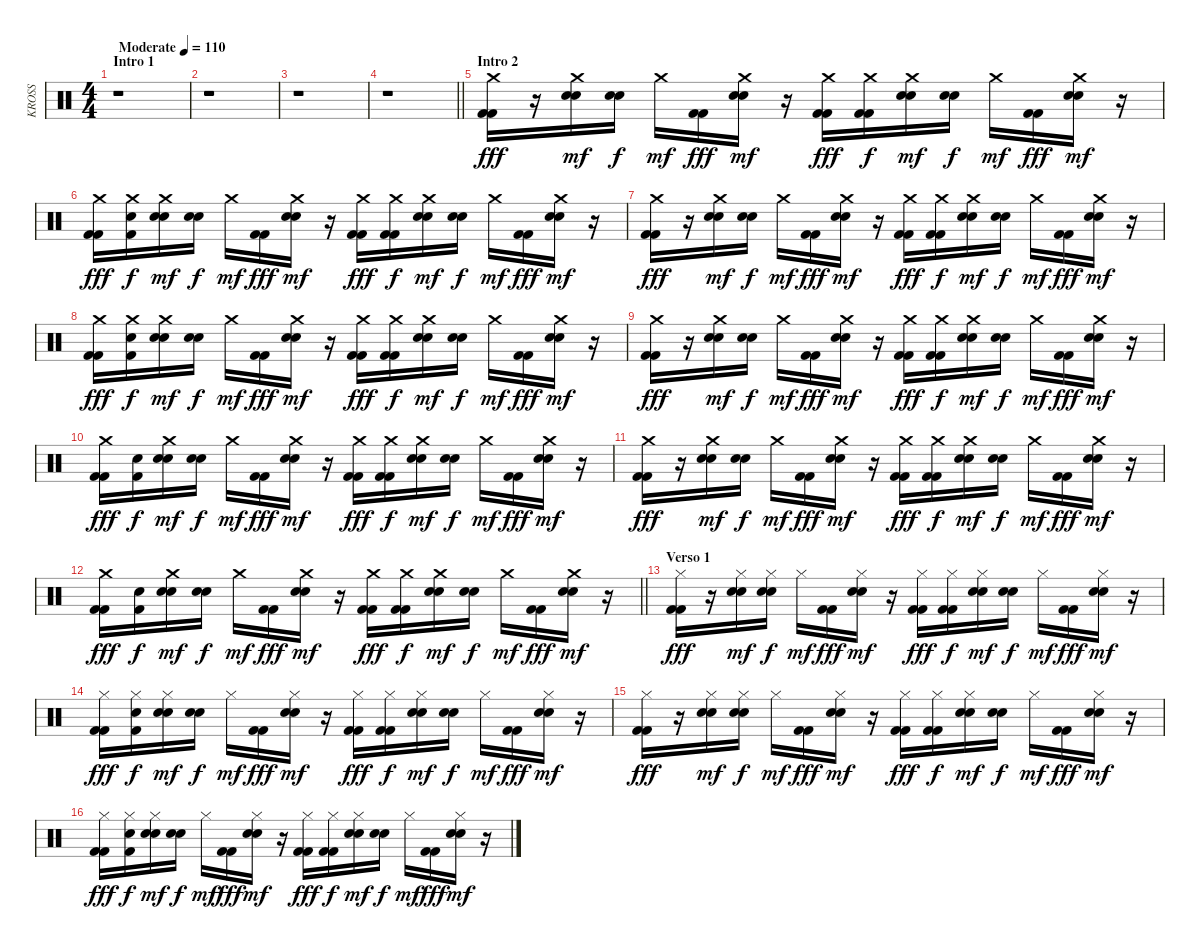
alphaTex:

\track ("KROSS" "KROSS") {instrument percussion}
\staff {score}
\articulation defaults
\ts (4 4)
\section ("" "Intro 1")
\tempo (110 "Moderate")
\clef neutral
\ks c
r.1{dy fff} |
r.1 |
r.1 |
\barLineRight lightlight
r.1 |
\section ("" "Intro 2")
("Crash medium (hit)" "Kick (hit) 2" "Kick (hit) 2").16 r.16 ("Crash medium (hit)" "Snare (hit) 2" "Snare (hit) 2").16{dy mf} ("Snare (hit) 2" "Snare (hit) 2").16{dy f} "Crash medium (hit)".16{dy mf} ("Kick (hit) 2" "Kick (hit) 2").16{dy fff} ("Crash medium (hit)" "Snare (hit) 2" "Snare (hit) 2").16{dy mf} r.16 ("Crash medium (hit)" "Kick (hit) 2" "Kick (hit) 2").16{dy fff} ("Crash medium (hit)" "Kick (hit) 2" "Kick (hit) 2").16{dy f} ("Crash medium (hit)" "Snare (hit) 2" "Snare (hit) 2").16{dy mf} ("Snare (hit) 2" "Snare (hit) 2").16{dy f} "Crash medium (hit)".16{dy mf} ("Kick (hit) 2" "Kick (hit) 2").16{dy fff} ("Crash medium (hit)" "Snare (hit) 2" "Snare (hit) 2").16{dy mf} r.16 |
("Crash medium (hit)" "Kick (hit) 2" "Kick (hit) 2").16{dy fff} ("Crash medium (hit)" "Kick (hit) 2" "Electric Snare (hit)").16{dy f} ("Crash medium (hit)" "Snare (hit) 2" "Snare (hit) 2").16{dy mf} ("Snare (hit) 2" "Snare (hit) 2").16{dy f} "Crash medium (hit)".16{dy mf} ("Kick (hit) 2" "Kick (hit) 2").16{dy fff} ("Crash medium (hit)" "Snare (hit) 2" "Snare (hit) 2").16{dy mf} r.16 ("Crash medium (hit)" "Kick (hit) 2" "Kick (hit) 2").16{dy fff} ("Crash medium (hit)" "Kick (hit) 2" "Kick (hit) 2").16{dy f} ("Crash medium (hit)" "Snare (hit) 2" "Snare (hit) 2").16{dy mf} ("Snare (hit) 2" "Snare (hit) 2").16{dy f} "Crash medium (hit)".16{dy mf} ("Kick (hit) 2" "Kick (hit) 2").16{dy fff} ("Crash medium (hit)" "Snare (hit) 2" "Snare (hit) 2").16{dy mf} r.16 |
("Crash medium (hit)" "Kick (hit) 2" "Kick (hit) 2").16{dy fff} r.16 ("Crash medium (hit)" "Snare (hit) 2" "Snare (hit) 2").16{dy mf} ("Snare (hit) 2" "Snare (hit) 2").16{dy f} "Crash medium (hit)".16{dy mf} ("Kick (hit) 2" "Kick (hit) 2").16{dy fff} ("Crash medium (hit)" "Snare (hit) 2" "Snare (hit) 2").16{dy mf} r.16 ("Crash medium (hit)" "Kick (hit) 2" "Kick (hit) 2").16{dy fff} ("Crash medium (hit)" "Kick (hit) 2" "Kick (hit) 2").16{dy f} ("Crash medium (hit)" "Snare (hit) 2" "Snare (hit) 2").16{dy mf} ("Snare (hit) 2" "Snare (hit) 2").16{dy f} "Crash medium (hit)".16{dy mf} ("Kick (hit) 2" "Kick (hit) 2").16{dy fff} ("Crash medium (hit)" "Snare (hit) 2" "Snare (hit) 2").16{dy mf} r.16 |
("Crash medium (hit)" "Kick (hit) 2" "Kick (hit) 2").16{dy fff} ("Crash medium (hit)" "Kick (hit) 2" "Electric Snare (hit)").16{dy f} ("Crash medium (hit)" "Snare (hit) 2" "Snare (hit) 2").16{dy mf} ("Snare (hit) 2" "Snare (hit) 2").16{dy f} "Crash medium (hit)".16{dy mf} ("Kick (hit) 2" "Kick (hit) 2").16{dy fff} ("Crash medium (hit)" "Snare (hit) 2" "Snare (hit) 2").16{dy mf} r.16 ("Crash medium (hit)" "Kick (hit) 2" "Kick (hit) 2").16{dy fff} ("Crash medium (hit)" "Kick (hit) 2" "Kick (hit) 2").16{dy f} ("Crash medium (hit)" "Snare (hit) 2" "Snare (hit) 2").16{dy mf} ("Snare (hit) 2" "Snare (hit) 2").16{dy f} "Crash medium (hit)".16{dy mf} ("Kick (hit) 2" "Kick (hit) 2").16{dy fff} ("Crash medium (hit)" "Snare (hit) 2" "Snare (hit) 2").16{dy mf} r.16 |
("Crash medium (hit)" "Kick (hit) 2" "Kick (hit) 2").16{dy fff} r.16 ("Crash medium (hit)" "Snare (hit) 2" "Snare (hit) 2").16{dy mf} ("Snare (hit) 2" "Snare (hit) 2").16{dy f} "Crash medium (hit)".16{dy mf} ("Kick (hit) 2" "Kick (hit) 2").16{dy fff} ("Crash medium (hit)" "Snare (hit) 2" "Snare (hit) 2").16{dy mf} r.16 ("Crash medium (hit)" "Kick (hit) 2" "Kick (hit) 2").16{dy fff} ("Crash medium (hit)" "Kick (hit) 2" "Kick (hit) 2").16{dy f} ("Crash medium (hit)" "Snare (hit) 2" "Snare (hit) 2").16{dy mf} ("Snare (hit) 2" "Snare (hit) 2").16{dy f} "Crash medium (hit)".16{dy mf} ("Kick (hit) 2" "Kick (hit) 2").16{dy fff} ("Crash medium (hit)" "Snare (hit) 2" "Snare (hit) 2").16{dy mf} r.16 |
("Crash medium (hit)" "Kick (hit) 2" "Kick (hit) 2").16{dy fff} ("Kick (hit) 2" "Electric Snare (hit)").16{dy f} ("Crash medium (hit)" "Snare (hit) 2" "Snare (hit) 2").16{dy mf} ("Snare (hit) 2" "Snare (hit) 2").16{dy f} "Crash medium (hit)".16{dy mf} ("Kick (hit) 2" "Kick (hit) 2").16{dy fff} ("Crash medium (hit)" "Snare (hit) 2" "Snare (hit) 2").16{dy mf} r.16 ("Crash medium (hit)" "Kick (hit) 2" "Kick (hit) 2").16{dy fff} ("Crash medium (hit)" "Kick (hit) 2" "Kick (hit) 2").16{dy f} ("Crash medium (hit)" "Snare (hit) 2" "Snare (hit) 2").16{dy mf} ("Snare (hit) 2" "Snare (hit) 2").16{dy f} "Crash medium (hit)".16{dy mf} ("Kick (hit) 2" "Kick (hit) 2").16{dy fff} ("Crash medium (hit)" "Snare (hit) 2" "Snare (hit) 2").16{dy mf} r.16 |
("Crash medium (hit)" "Kick (hit) 2" "Kick (hit) 2").16{dy fff} r.16 ("Crash medium (hit)" "Snare (hit) 2" "Snare (hit) 2").16{dy mf} ("Snare (hit) 2" "Snare (hit) 2").16{dy f} "Crash medium (hit)".16{dy mf} ("Kick (hit) 2" "Kick (hit) 2").16{dy fff} ("Crash medium (hit)" "Snare (hit) 2" "Snare (hit) 2").16{dy mf} r.16 ("Crash medium (hit)" "Kick (hit) 2" "Kick (hit) 2").16{dy fff} ("Crash medium (hit)" "Kick (hit) 2" "Kick (hit) 2").16{dy f} ("Crash medium (hit)" "Snare (hit) 2" "Snare (hit) 2").16{dy mf} ("Snare (hit) 2" "Snare (hit) 2").16{dy f} "Crash medium (hit)".16{dy mf} ("Kick (hit) 2" "Kick (hit) 2").16{dy fff} ("Crash medium (hit)" "Snare (hit) 2" "Snare (hit) 2").16{dy mf} r.16 |
\barLineRight lightlight
("Crash medium (hit)" "Kick (hit) 2" "Kick (hit) 2").16{dy fff} ("Kick (hit) 2" "Electric Snare (hit)").16{dy f} ("Crash medium (hit)" "Snare (hit) 2" "Snare (hit) 2").16{dy mf} ("Snare (hit) 2" "Snare (hit) 2").16{dy f} "Crash medium (hit)".16{dy mf} ("Kick (hit) 2" "Kick (hit) 2").16{dy fff} ("Crash medium (hit)" "Snare (hit) 2" "Snare (hit) 2").16{dy mf} r.16 ("Crash medium (hit)" "Kick (hit) 2" "Kick (hit) 2").16{dy fff} ("Crash medium (hit)" "Kick (hit) 2" "Kick (hit) 2").16{dy f} ("Crash medium (hit)" "Snare (hit) 2" "Snare (hit) 2").16{dy mf} ("Snare (hit) 2" "Snare (hit) 2").16{dy f} "Crash medium (hit)".16{dy mf} ("Kick (hit) 2" "Kick (hit) 2").16{dy fff} ("Crash medium (hit)" "Snare (hit) 2" "Snare (hit) 2").16{dy mf} r.16 |
\section ("" "Verso 1")
("Hi-Hat (closed)" "Kick (hit) 2" "Kick (hit) 2").16{dy fff} r.16 ("Hi-Hat (closed)" "Snare (hit) 2" "Snare (hit) 2").16{dy mf} ("Hi-Hat (closed)" "Snare (hit) 2" "Snare (hit) 2").16{dy f} "Hi-Hat (closed)".16{dy mf} ("Kick (hit) 2" "Kick (hit) 2").16{dy fff} ("Hi-Hat (closed)" "Snare (hit) 2" "Snare (hit) 2").16{dy mf} r.16 ("Hi-Hat (closed)" "Kick (hit) 2" "Kick (hit) 2").16{dy fff} ("Hi-Hat (closed)" "Kick (hit) 2" "Kick (hit) 2").16{dy f} ("Hi-Hat (closed)" "Snare (hit) 2" "Snare (hit) 2").16{dy mf} ("Snare (hit) 2" "Snare (hit) 2").16{dy f} "Hi-Hat (closed)".16{dy mf} ("Kick (hit) 2" "Kick (hit) 2").16{dy fff} ("Hi-Hat (closed)" "Snare (hit) 2" "Snare (hit) 2").16{dy mf} r.16 |
("Hi-Hat (closed)" "Kick (hit) 2" "Kick (hit) 2").16{dy fff} ("Hi-Hat (closed)" "Kick (hit) 2" "Electric Snare (hit)").16{dy f} ("Hi-Hat (closed)" "Snare (hit) 2" "Snare (hit) 2").16{dy mf} ("Snare (hit) 2" "Snare (hit) 2").16{dy f} "Hi-Hat (closed)".16{dy mf} ("Kick (hit) 2" "Kick (hit) 2").16{dy fff} ("Hi-Hat (closed)" "Snare (hit) 2" "Snare (hit) 2").16{dy mf} r.16 ("Hi-Hat (closed)" "Kick (hit) 2" "Kick (hit) 2").16{dy fff} ("Hi-Hat (closed)" "Kick (hit) 2" "Kick (hit) 2").16{dy f} ("Hi-Hat (closed)" "Snare (hit) 2" "Snare (hit) 2").16{dy mf} ("Snare (hit) 2" "Snare (hit) 2").16{dy f} "Hi-Hat (closed)".16{dy mf} ("Kick (hit) 2" "Kick (hit) 2").16{dy fff} ("Hi-Hat (closed)" "Snare (hit) 2" "Snare (hit) 2").16{dy mf} r.16 |
("Hi-Hat (closed)" "Kick (hit) 2" "Kick (hit) 2").16{dy fff} r.16 ("Hi-Hat (closed)" "Snare (hit) 2" "Snare (hit) 2").16{dy mf} ("Hi-Hat (closed)" "Snare (hit) 2" "Snare (hit) 2").16{dy f} "Hi-Hat (closed)".16{dy mf} ("Kick (hit) 2" "Kick (hit) 2").16{dy fff} ("Hi-Hat (closed)" "Snare (hit) 2" "Snare (hit) 2").16{dy mf} r.16 ("Hi-Hat (closed)" "Kick (hit) 2" "Kick (hit) 2").16{dy fff} ("Hi-Hat (closed)" "Kick (hit) 2" "Kick (hit) 2").16{dy f} ("Hi-Hat (closed)" "Snare (hit) 2" "Snare (hit) 2").16{dy mf} ("Snare (hit) 2" "Snare (hit) 2").16{dy f} "Hi-Hat (closed)".16{dy mf} ("Kick (hit) 2" "Kick (hit) 2").16{dy fff} ("Hi-Hat (closed)" "Snare (hit) 2" "Snare (hit) 2").16{dy mf} r.16 |
("Hi-Hat (closed)" "Kick (hit) 2" "Kick (hit) 2").16{dy fff} ("Hi-Hat (closed)" "Kick (hit) 2" "Electric Snare (hit)").16{dy f} ("Hi-Hat (closed)" "Snare (hit) 2" "Snare (hit) 2").16{dy mf} ("Snare (hit) 2" "Snare (hit) 2").16{dy f} "Hi-Hat (closed)".16{dy mf} ("Kick (hit) 2" "Kick (hit) 2").16{dy fff} ("Hi-Hat (closed)" "Snare (hit) 2" "Snare (hit) 2").16{dy mf} r.16 ("Hi-Hat (closed)" "Kick (hit) 2" "Kick (hit) 2").16{dy fff} ("Hi-Hat (closed)" "Kick (hit) 2" "Kick (hit) 2").16{dy f} ("Hi-Hat (closed)" "Snare (hit) 2" "Snare (hit) 2").16{dy mf} ("Snare (hit) 2" "Snare (hit) 2").16{dy f} "Hi-Hat (closed)".16{dy mf} ("Kick (hit) 2" "Kick (hit) 2").16{dy fff} ("Hi-Hat (closed)" "Snare (hit) 2" "Snare (hit) 2").16{dy mf} r.16
